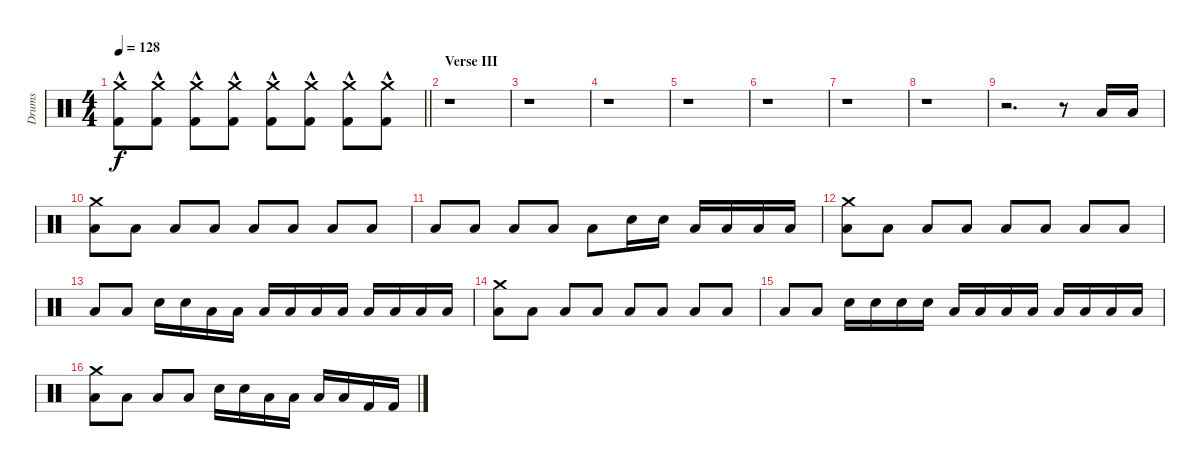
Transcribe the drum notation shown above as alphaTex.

\track ("Drums" "Drums") {instrument percussion}
\staff {score}
\articulation defaults
\ts (4 4)
\tempo 128
\clef neutral
\barLineRight lightlight
\ks c
("Crash medium (hit)" "Kick (hit) 2"{hac}).8{dy f} ("Crash medium (hit)" "Kick (hit) 2"{hac}).8 ("Crash medium (hit)" "Kick (hit) 2"{hac}).8 ("Crash medium (hit)" "Kick (hit) 2"{hac}).8 ("Crash medium (hit)" "Kick (hit) 2"{hac}).8 ("Crash medium (hit)" "Kick (hit) 2"{hac}).8 ("Crash medium (hit)"{hac} "Kick (hit) 2"{hac}).8 ("Crash medium (hit)"{hac} "Kick (hit) 2"{hac}).8 |
\section ("" "Verse III")
r.1 |
r.1 |
r.1 |
r.1 |
r.1 |
r.1 |
r.1 |
r.2{d} r.8 "Low Floor Tom (hit)".16 "Low Floor Tom (hit)".16 |
("Crash medium (hit)" "Low Floor Tom (hit)").8 "Low Floor Tom (hit)".8 "Low Floor Tom (hit)".8 "Low Floor Tom (hit)".8 "Low Floor Tom (hit)".8 "Low Floor Tom (hit)".8 "Low Floor Tom (hit)".8 "Low Floor Tom (hit)".8 |
"Low Floor Tom (hit)".8 "Low Floor Tom (hit)".8 "Low Floor Tom (hit)".8 "Low Floor Tom (hit)".8 "Low Floor Tom (hit)".8 "Snare (hit) 2".16 "Snare (hit) 2".16 "Low Tom (hit)".16 "Low Tom (hit)".16 "Low Floor Tom (hit)".16 "Low Floor Tom (hit)".16 |
("Crash medium (hit)" "Low Floor Tom (hit)").8 "Low Floor Tom (hit)".8 "Low Floor Tom (hit)".8 "Low Floor Tom (hit)".8 "Low Floor Tom (hit)".8 "Low Floor Tom (hit)".8 "Low Floor Tom (hit)".8 "Low Floor Tom (hit)".8 |
"Low Floor Tom (hit)".8 "Low Floor Tom (hit)".8 "Snare (hit) 2".16 "Snare (hit) 2".16 "Low Tom (hit)".16 "Low Tom (hit)".16 "Low Tom (hit)".16 "Low Tom (hit)".16 "Low Tom (hit)".16 "Low Tom (hit)".16 "Low Floor Tom (hit)".16 "Low Floor Tom (hit)".16 "Low Floor Tom (hit)".16 "Low Floor Tom (hit)".16 |
("Crash medium (hit)" "Low Floor Tom (hit)").8 "Low Floor Tom (hit)".8 "Low Floor Tom (hit)".8 "Low Floor Tom (hit)".8 "Low Floor Tom (hit)".8 "Low Floor Tom (hit)".8 "Low Floor Tom (hit)".8 "Low Floor Tom (hit)".8 |
"Low Floor Tom (hit)".8 "Low Floor Tom (hit)".8 "Snare (hit) 2".16 "Snare (hit) 2".16 "Snare (hit) 2".16 "Snare (hit) 2".16 "Low Tom (hit)".16 "Low Tom (hit)".16 "Low Tom (hit)".16 "Low Tom (hit)".16 "Low Floor Tom (hit)".16 "Low Floor Tom (hit)".16 "Low Floor Tom (hit)".16 "Low Floor Tom (hit)".16 |
("Crash medium (hit)" "Low Floor Tom (hit)").8 "Low Floor Tom (hit)".8 "Low Floor Tom (hit)".8 "Low Floor Tom (hit)".8 "Snare (hit) 2".16 "Snare (hit) 2".16 "Low Tom (hit)".16 "Low Tom (hit)".16 "Low Floor Tom (hit)".16 "Low Floor Tom (hit)".16 "Kick (hit) 2".16 "Kick (hit) 2".16
